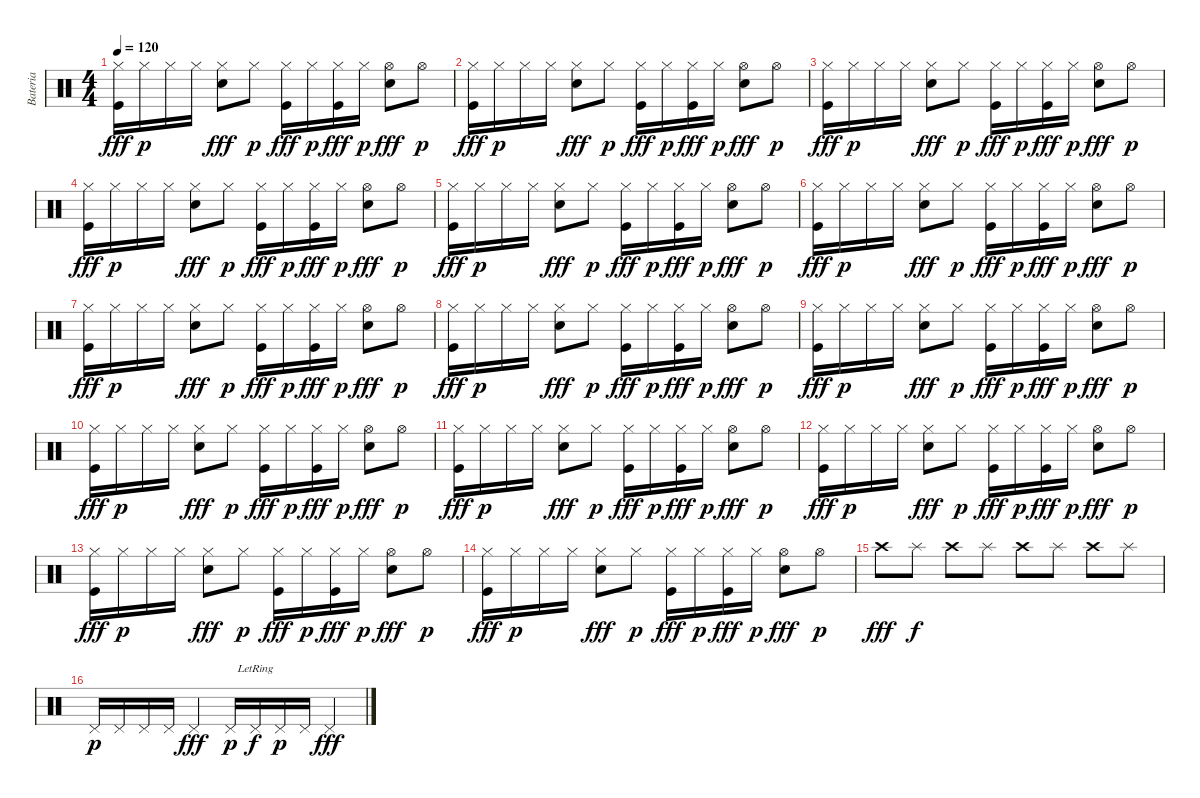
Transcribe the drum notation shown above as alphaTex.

\track ("Bateria" "Bateria") {instrument percussion}
\staff {score}
\articulation defaults
\ts (4 4)
\tempo 120
\clef neutral
\ks c
("Hi-Hat (closed)" "Kick (hit)").16{dy fff} "Hi-Hat (closed)".16{dy p} "Hi-Hat (closed)".16 "Hi-Hat (closed)".16 ("Hi-Hat (closed)" "Snare (hit) 2").8{dy fff} "Hi-Hat (closed)".8{dy p} ("Hi-Hat (closed)" "Kick (hit)").16{dy fff} "Hi-Hat (closed)".16{dy p} ("Hi-Hat (closed)" "Kick (hit)").16{dy fff} "Hi-Hat (closed)".16{dy p} ("Hi-Hat (open)" "Snare (hit) 2").8{dy fff} "Hi-Hat (open)".8{dy p} |
("Hi-Hat (closed)" "Kick (hit)").16{dy fff} "Hi-Hat (closed)".16{dy p} "Hi-Hat (closed)".16 "Hi-Hat (closed)".16 ("Hi-Hat (closed)" "Snare (hit) 2").8{dy fff} "Hi-Hat (closed)".8{dy p} ("Hi-Hat (closed)" "Kick (hit)").16{dy fff} "Hi-Hat (closed)".16{dy p} ("Hi-Hat (closed)" "Kick (hit)").16{dy fff} "Hi-Hat (closed)".16{dy p} ("Hi-Hat (open)" "Snare (hit) 2").8{dy fff} "Hi-Hat (open)".8{dy p} |
("Hi-Hat (closed)" "Kick (hit)").16{dy fff} "Hi-Hat (closed)".16{dy p} "Hi-Hat (closed)".16 "Hi-Hat (closed)".16 ("Hi-Hat (closed)" "Snare (hit) 2").8{dy fff} "Hi-Hat (closed)".8{dy p} ("Hi-Hat (closed)" "Kick (hit)").16{dy fff} "Hi-Hat (closed)".16{dy p} ("Hi-Hat (closed)" "Kick (hit)").16{dy fff} "Hi-Hat (closed)".16{dy p} ("Hi-Hat (open)" "Snare (hit) 2").8{dy fff} "Hi-Hat (open)".8{dy p} |
("Hi-Hat (closed)" "Kick (hit)").16{dy fff} "Hi-Hat (closed)".16{dy p} "Hi-Hat (closed)".16 "Hi-Hat (closed)".16 ("Hi-Hat (closed)" "Snare (hit) 2").8{dy fff} "Hi-Hat (closed)".8{dy p} ("Hi-Hat (closed)" "Kick (hit)").16{dy fff} "Hi-Hat (closed)".16{dy p} ("Hi-Hat (closed)" "Kick (hit)").16{dy fff} "Hi-Hat (closed)".16{dy p} ("Hi-Hat (open)" "Snare (hit) 2").8{dy fff} "Hi-Hat (open)".8{dy p} |
("Hi-Hat (closed)" "Kick (hit)").16{dy fff} "Hi-Hat (closed)".16{dy p} "Hi-Hat (closed)".16 "Hi-Hat (closed)".16 ("Hi-Hat (closed)" "Snare (hit) 2").8{dy fff} "Hi-Hat (closed)".8{dy p} ("Hi-Hat (closed)" "Kick (hit)").16{dy fff} "Hi-Hat (closed)".16{dy p} ("Hi-Hat (closed)" "Kick (hit)").16{dy fff} "Hi-Hat (closed)".16{dy p} ("Hi-Hat (open)" "Snare (hit) 2").8{dy fff} "Hi-Hat (open)".8{dy p} |
("Hi-Hat (closed)" "Kick (hit)").16{dy fff} "Hi-Hat (closed)".16{dy p} "Hi-Hat (closed)".16 "Hi-Hat (closed)".16 ("Hi-Hat (closed)" "Snare (hit) 2").8{dy fff} "Hi-Hat (closed)".8{dy p} ("Hi-Hat (closed)" "Kick (hit)").16{dy fff} "Hi-Hat (closed)".16{dy p} ("Hi-Hat (closed)" "Kick (hit)").16{dy fff} "Hi-Hat (closed)".16{dy p} ("Hi-Hat (open)" "Snare (hit) 2").8{dy fff} "Hi-Hat (open)".8{dy p} |
("Hi-Hat (closed)" "Kick (hit)").16{dy fff} "Hi-Hat (closed)".16{dy p} "Hi-Hat (closed)".16 "Hi-Hat (closed)".16 ("Hi-Hat (closed)" "Snare (hit) 2").8{dy fff} "Hi-Hat (closed)".8{dy p} ("Hi-Hat (closed)" "Kick (hit)").16{dy fff} "Hi-Hat (closed)".16{dy p} ("Hi-Hat (closed)" "Kick (hit)").16{dy fff} "Hi-Hat (closed)".16{dy p} ("Hi-Hat (open)" "Snare (hit) 2").8{dy fff} "Hi-Hat (open)".8{dy p} |
("Hi-Hat (closed)" "Kick (hit)").16{dy fff} "Hi-Hat (closed)".16{dy p} "Hi-Hat (closed)".16 "Hi-Hat (closed)".16 ("Hi-Hat (closed)" "Snare (hit) 2").8{dy fff} "Hi-Hat (closed)".8{dy p} ("Hi-Hat (closed)" "Kick (hit)").16{dy fff} "Hi-Hat (closed)".16{dy p} ("Hi-Hat (closed)" "Kick (hit)").16{dy fff} "Hi-Hat (closed)".16{dy p} ("Hi-Hat (open)" "Snare (hit) 2").8{dy fff} "Hi-Hat (open)".8{dy p} |
("Hi-Hat (closed)" "Kick (hit)").16{dy fff} "Hi-Hat (closed)".16{dy p} "Hi-Hat (closed)".16 "Hi-Hat (closed)".16 ("Hi-Hat (closed)" "Snare (hit) 2").8{dy fff} "Hi-Hat (closed)".8{dy p} ("Hi-Hat (closed)" "Kick (hit)").16{dy fff} "Hi-Hat (closed)".16{dy p} ("Hi-Hat (closed)" "Kick (hit)").16{dy fff} "Hi-Hat (closed)".16{dy p} ("Hi-Hat (open)" "Snare (hit) 2").8{dy fff} "Hi-Hat (open)".8{dy p} |
("Hi-Hat (closed)" "Kick (hit)").16{dy fff} "Hi-Hat (closed)".16{dy p} "Hi-Hat (closed)".16 "Hi-Hat (closed)".16 ("Hi-Hat (closed)" "Snare (hit) 2").8{dy fff} "Hi-Hat (closed)".8{dy p} ("Hi-Hat (closed)" "Kick (hit)").16{dy fff} "Hi-Hat (closed)".16{dy p} ("Hi-Hat (closed)" "Kick (hit)").16{dy fff} "Hi-Hat (closed)".16{dy p} ("Hi-Hat (open)" "Snare (hit) 2").8{dy fff} "Hi-Hat (open)".8{dy p} |
("Hi-Hat (closed)" "Kick (hit)").16{dy fff} "Hi-Hat (closed)".16{dy p} "Hi-Hat (closed)".16 "Hi-Hat (closed)".16 ("Hi-Hat (closed)" "Snare (hit) 2").8{dy fff} "Hi-Hat (closed)".8{dy p} ("Hi-Hat (closed)" "Kick (hit)").16{dy fff} "Hi-Hat (closed)".16{dy p} ("Hi-Hat (closed)" "Kick (hit)").16{dy fff} "Hi-Hat (closed)".16{dy p} ("Hi-Hat (open)" "Snare (hit) 2").8{dy fff} "Hi-Hat (open)".8{dy p} |
("Hi-Hat (closed)" "Kick (hit)").16{dy fff} "Hi-Hat (closed)".16{dy p} "Hi-Hat (closed)".16 "Hi-Hat (closed)".16 ("Hi-Hat (closed)" "Snare (hit) 2").8{dy fff} "Hi-Hat (closed)".8{dy p} ("Hi-Hat (closed)" "Kick (hit)").16{dy fff} "Hi-Hat (closed)".16{dy p} ("Hi-Hat (closed)" "Kick (hit)").16{dy fff} "Hi-Hat (closed)".16{dy p} ("Hi-Hat (open)" "Snare (hit) 2").8{dy fff} "Hi-Hat (open)".8{dy p} |
("Hi-Hat (closed)" "Kick (hit)").16{dy fff} "Hi-Hat (closed)".16{dy p} "Hi-Hat (closed)".16 "Hi-Hat (closed)".16 ("Hi-Hat (closed)" "Snare (hit) 2").8{dy fff} "Hi-Hat (closed)".8{dy p} ("Hi-Hat (closed)" "Kick (hit)").16{dy fff} "Hi-Hat (closed)".16{dy p} ("Hi-Hat (closed)" "Kick (hit)").16{dy fff} "Hi-Hat (closed)".16{dy p} ("Hi-Hat (open)" "Snare (hit) 2").8{dy fff} "Hi-Hat (open)".8{dy p} |
("Hi-Hat (closed)" "Kick (hit)").16{dy fff} "Hi-Hat (closed)".16{dy p} "Hi-Hat (closed)".16 "Hi-Hat (closed)".16 ("Hi-Hat (closed)" "Snare (hit) 2").8{dy fff} "Hi-Hat (closed)".8{dy p} ("Hi-Hat (closed)" "Kick (hit)").16{dy fff} "Hi-Hat (closed)".16{dy p} ("Hi-Hat (closed)" "Kick (hit)").16{dy fff} "Hi-Hat (closed)".16{dy p} ("Hi-Hat (open)" "Snare (hit) 2").8{dy fff} "Hi-Hat (open)".8{dy p} |
"Crash high (hit)".8{dy fff} "Splash (hit)".8{dy f} "Crash high (hit)".8 "Splash (hit)".8 "Crash high (hit)".8 "Splash (hit)".8 "Crash high (hit)".8 "Splash (hit)".8 |
"Pedal Hi-Hat (hit)".16{dy p} "Pedal Hi-Hat (hit)".16 "Pedal Hi-Hat (hit)".16 "Pedal Hi-Hat (hit)".16 "Pedal Hi-Hat (hit)".4{dy fff} "Pedal Hi-Hat (hit)".16{dy p} "Pedal Hi-Hat (hit)"{lr}.16{dy f} "Pedal Hi-Hat (hit)".16{dy p} "Pedal Hi-Hat (hit)".16 "Pedal Hi-Hat (hit)".4{dy fff}
